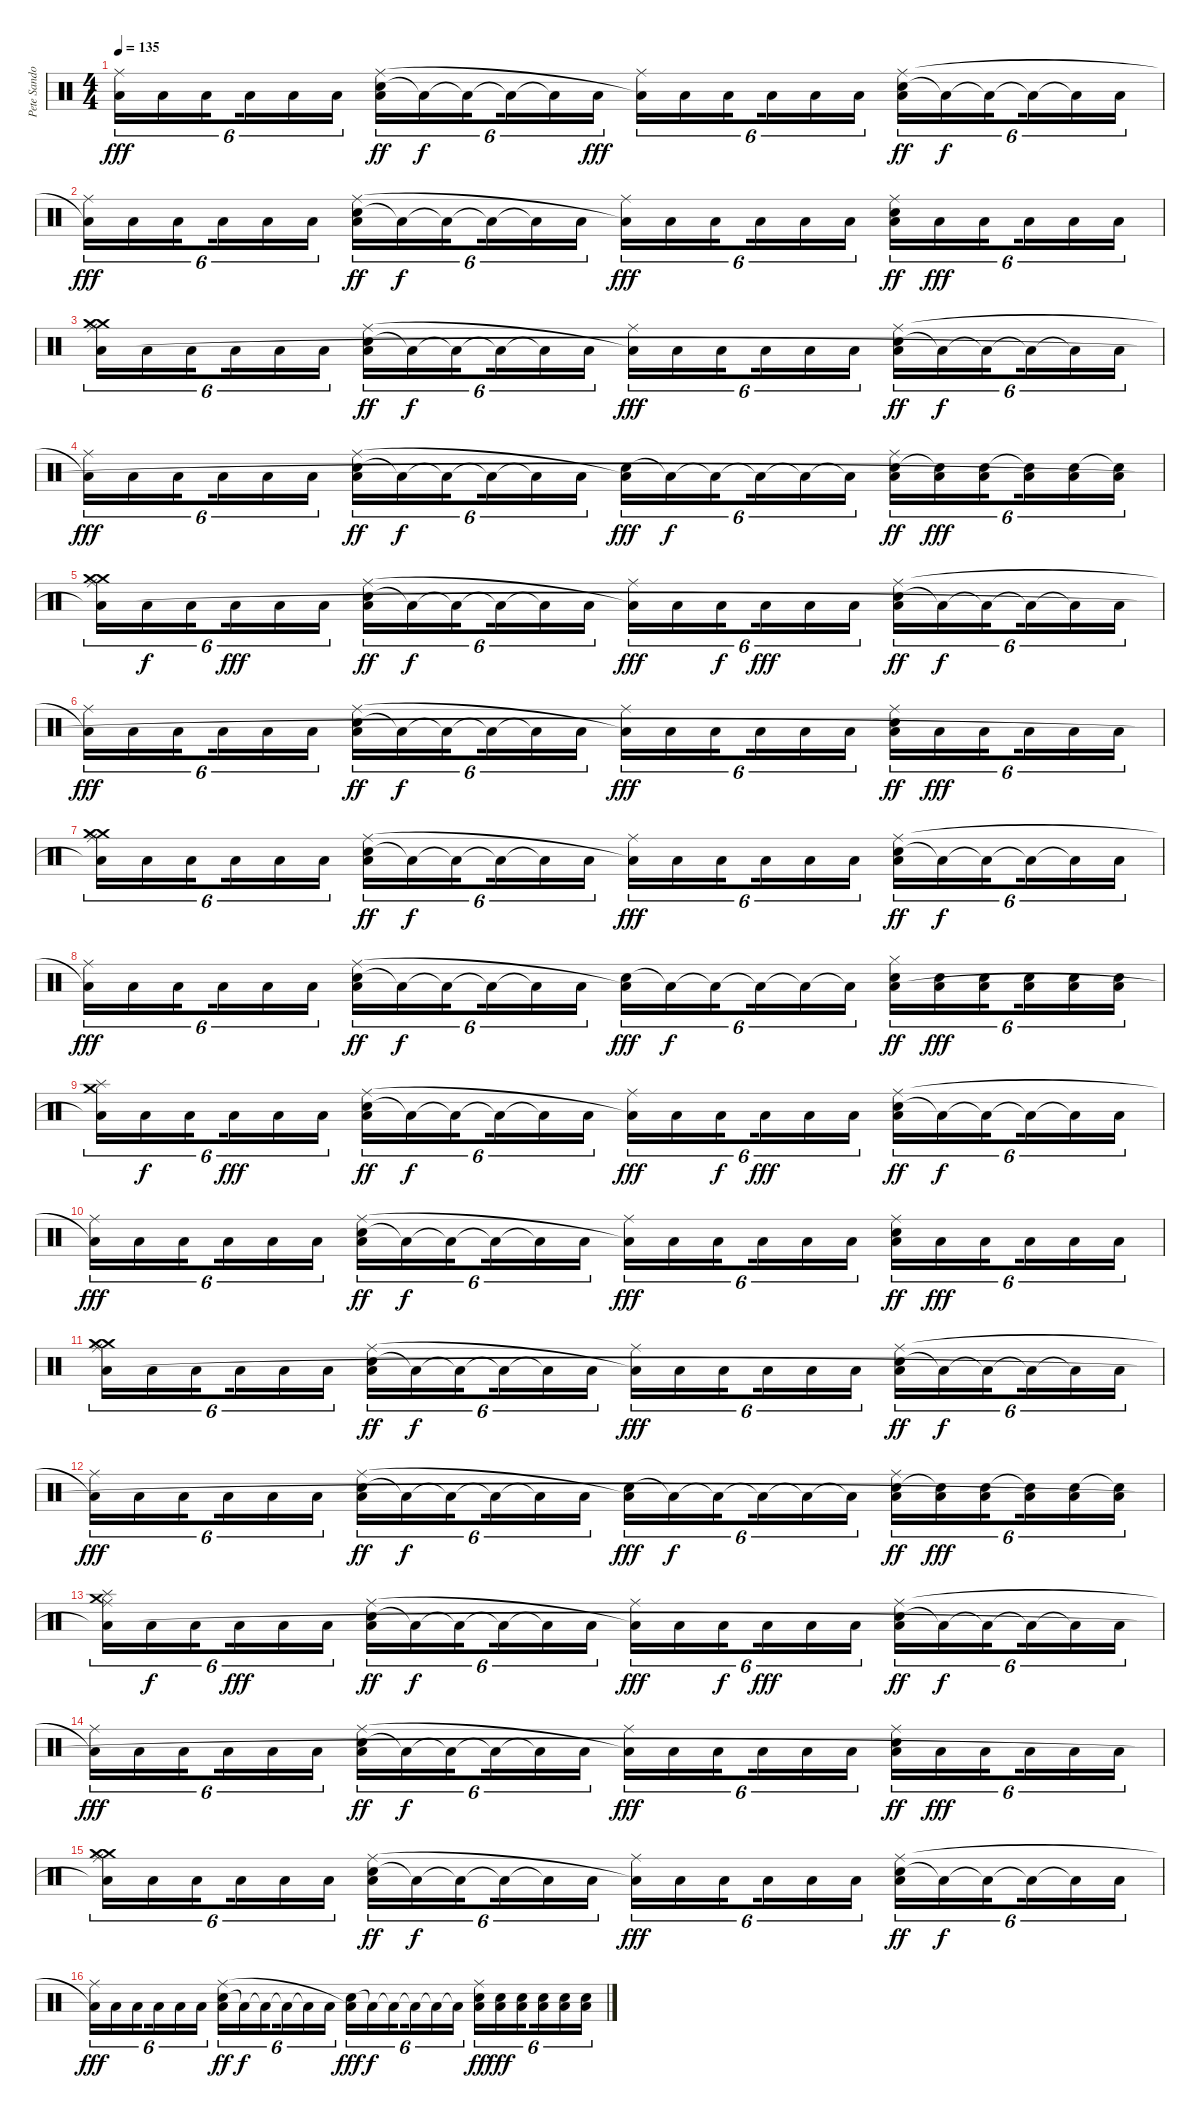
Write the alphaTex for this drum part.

\track ("Pete Sandoval" "Pete Sando") {instrument percussion}
\staff {score}
\articulation defaults
\ts (4 4)
\tempo 135
\clef neutral
\ks c
("Ride (middle)" "Low Floor Tom (hit)"{t}).16{tu (6 4) dy fff} "Low Floor Tom (hit)".16{tu (6 4)} "Low Floor Tom (hit)".16{tu (6 4) beam splitsecondary} "Low Floor Tom (hit)".16{tu (6 4)} "Low Floor Tom (hit)".16{tu (6 4)} "Low Floor Tom (hit)".16{tu (6 4)} ("Electric Snare (hit)" "Ride (middle)" "Low Floor Tom (hit)").16{tu (6 4) dy ff} "Low Floor Tom (hit)"{t}.16{tu (6 4) dy f} "Low Floor Tom (hit)"{t}.16{tu (6 4) beam splitsecondary} "Low Floor Tom (hit)"{t}.16{tu (6 4)} "Low Floor Tom (hit)"{t}.16{tu (6 4)} "Low Floor Tom (hit)".16{tu (6 4) dy fff} ("Ride (middle)" "Low Floor Tom (hit)"{t}).16{tu (6 4)} "Low Floor Tom (hit)".16{tu (6 4)} "Low Floor Tom (hit)".16{tu (6 4) beam splitsecondary} "Low Floor Tom (hit)".16{tu (6 4)} "Low Floor Tom (hit)".16{tu (6 4)} "Low Floor Tom (hit)".16{tu (6 4)} ("Electric Snare (hit)" "Ride (middle)" "Low Floor Tom (hit)").16{tu (6 4) dy ff} "Low Floor Tom (hit)"{t}.16{tu (6 4) dy f} "Low Floor Tom (hit)"{t}.16{tu (6 4) beam splitsecondary} "Low Floor Tom (hit)"{t}.16{tu (6 4)} "Low Floor Tom (hit)"{t}.16{tu (6 4)} "Low Floor Tom (hit)".16{tu (6 4)} |
("Ride (middle)" "Low Floor Tom (hit)"{t}).16{tu (6 4) dy fff} "Low Floor Tom (hit)".16{tu (6 4)} "Low Floor Tom (hit)".16{tu (6 4) beam splitsecondary} "Low Floor Tom (hit)".16{tu (6 4)} "Low Floor Tom (hit)".16{tu (6 4)} "Low Floor Tom (hit)".16{tu (6 4)} ("Electric Snare (hit)" "Ride (middle)" "Low Floor Tom (hit)").16{tu (6 4) dy ff} "Low Floor Tom (hit)"{t}.16{tu (6 4) dy f} "Low Floor Tom (hit)"{t}.16{tu (6 4) beam splitsecondary} "Low Floor Tom (hit)"{t}.16{tu (6 4)} "Low Floor Tom (hit)"{t}.16{tu (6 4)} "Low Floor Tom (hit)".16{tu (6 4)} ("Ride (middle)" "Low Floor Tom (hit)"{t}).16{tu (6 4) dy fff} "Low Floor Tom (hit)".16{tu (6 4)} "Low Floor Tom (hit)".16{tu (6 4) beam splitsecondary} "Low Floor Tom (hit)".16{tu (6 4)} "Low Floor Tom (hit)".16{tu (6 4)} "Low Floor Tom (hit)".16{tu (6 4)} ("Electric Snare (hit)" "Ride (middle)" "Low Floor Tom (hit)").16{tu (6 4) dy ff} "Low Floor Tom (hit)".16{tu (6 4) dy fff} "Low Floor Tom (hit)".16{tu (6 4) beam splitsecondary} "Low Floor Tom (hit)".16{tu (6 4)} "Low Floor Tom (hit)".16{tu (6 4)} "Low Floor Tom (hit)".16{tu (6 4)} |
("Crash medium (hit)" "Crash medium (hit)" "Ride (middle)" "Low Floor Tom (hit)").16{tu (6 4)} "Low Floor Tom (hit)".16{tu (6 4)} "Low Floor Tom (hit)".16{tu (6 4) beam splitsecondary} "Low Floor Tom (hit)".16{tu (6 4)} "Low Floor Tom (hit)".16{tu (6 4)} "Low Floor Tom (hit)".16{tu (6 4)} ("Electric Snare (hit)" "Ride (middle)" "Low Floor Tom (hit)").16{tu (6 4) dy ff} "Low Floor Tom (hit)"{t}.16{tu (6 4) dy f} "Low Floor Tom (hit)"{t}.16{tu (6 4) beam splitsecondary} "Low Floor Tom (hit)"{t}.16{tu (6 4)} "Low Floor Tom (hit)"{t}.16{tu (6 4)} "Low Floor Tom (hit)".16{tu (6 4)} ("Ride (middle)" "Low Floor Tom (hit)"{t}).16{tu (6 4) dy fff} "Low Floor Tom (hit)".16{tu (6 4)} "Low Floor Tom (hit)".16{tu (6 4) beam splitsecondary} "Low Floor Tom (hit)".16{tu (6 4)} "Low Floor Tom (hit)".16{tu (6 4)} "Low Floor Tom (hit)".16{tu (6 4)} ("Electric Snare (hit)" "Ride (middle)" "Low Floor Tom (hit)").16{tu (6 4) dy ff} "Low Floor Tom (hit)"{t}.16{tu (6 4) dy f} "Low Floor Tom (hit)"{t}.16{tu (6 4) beam splitsecondary} "Low Floor Tom (hit)"{t}.16{tu (6 4)} "Low Floor Tom (hit)"{t}.16{tu (6 4)} "Low Floor Tom (hit)".16{tu (6 4)} |
("Ride (middle)" "Low Floor Tom (hit)"{t}).16{tu (6 4) dy fff} "Low Floor Tom (hit)".16{tu (6 4)} "Low Floor Tom (hit)".16{tu (6 4) beam splitsecondary} "Low Floor Tom (hit)".16{tu (6 4)} "Low Floor Tom (hit)".16{tu (6 4)} "Low Floor Tom (hit)".16{tu (6 4)} ("Electric Snare (hit)" "Ride (middle)" "Low Floor Tom (hit)").16{tu (6 4) dy ff} "Low Floor Tom (hit)"{t}.16{tu (6 4) dy f} "Low Floor Tom (hit)"{t}.16{tu (6 4) beam splitsecondary} "Low Floor Tom (hit)"{t}.16{tu (6 4)} "Low Floor Tom (hit)"{t}.16{tu (6 4)} "Low Floor Tom (hit)".16{tu (6 4)} ("Electric Snare (hit)" "Low Floor Tom (hit)"{t}).16{tu (6 4) dy fff} "Low Floor Tom (hit)"{t}.16{tu (6 4) dy f} "Low Floor Tom (hit)"{t}.16{tu (6 4) beam splitsecondary} "Low Floor Tom (hit)"{t}.16{tu (6 4)} "Low Floor Tom (hit)"{t}.16{tu (6 4)} "Low Floor Tom (hit)"{t}.16{tu (6 4)} ("Electric Snare (hit)" "Ride (middle)" "Low Floor Tom (hit)").16{tu (6 4) dy ff} ("Electric Snare (hit)"{t} "Low Floor Tom (hit)").16{tu (6 4) dy fff} ("Electric Snare (hit)" "Low Floor Tom (hit)").16{tu (6 4) beam splitsecondary} ("Electric Snare (hit)"{t} "Low Floor Tom (hit)").16{tu (6 4)} ("Electric Snare (hit)" "Low Floor Tom (hit)").16{tu (6 4)} ("Electric Snare (hit)"{t} "Low Floor Tom (hit)").16{tu (6 4)} |
("Crash medium (hit)" "Crash medium (hit)" "Ride (middle)" "Low Floor Tom (hit)"{t}).16{tu (6 4)} "Low Floor Tom (hit)".16{tu (6 4) dy f} "Low Floor Tom (hit)".16{tu (6 4) beam splitsecondary} "Low Floor Tom (hit)".16{tu (6 4) dy fff} "Low Floor Tom (hit)".16{tu (6 4)} "Low Floor Tom (hit)".16{tu (6 4)} ("Electric Snare (hit)" "Ride (middle)" "Low Floor Tom (hit)").16{tu (6 4) dy ff} "Low Floor Tom (hit)"{t}.16{tu (6 4) dy f} "Low Floor Tom (hit)"{t}.16{tu (6 4) beam splitsecondary} "Low Floor Tom (hit)"{t}.16{tu (6 4)} "Low Floor Tom (hit)"{t}.16{tu (6 4)} "Low Floor Tom (hit)".16{tu (6 4)} ("Ride (middle)" "Low Floor Tom (hit)"{t}).16{tu (6 4) dy fff} "Low Floor Tom (hit)".16{tu (6 4)} "Low Floor Tom (hit)".16{tu (6 4) dy f beam splitsecondary} "Low Floor Tom (hit)".16{tu (6 4) dy fff} "Low Floor Tom (hit)".16{tu (6 4)} "Low Floor Tom (hit)".16{tu (6 4)} ("Electric Snare (hit)" "Ride (middle)" "Low Floor Tom (hit)").16{tu (6 4) dy ff} "Low Floor Tom (hit)"{t}.16{tu (6 4) dy f} "Low Floor Tom (hit)"{t}.16{tu (6 4) beam splitsecondary} "Low Floor Tom (hit)"{t}.16{tu (6 4)} "Low Floor Tom (hit)"{t}.16{tu (6 4)} "Low Floor Tom (hit)".16{tu (6 4)} |
("Ride (middle)" "Low Floor Tom (hit)"{t}).16{tu (6 4) dy fff} "Low Floor Tom (hit)".16{tu (6 4)} "Low Floor Tom (hit)".16{tu (6 4) beam splitsecondary} "Low Floor Tom (hit)".16{tu (6 4)} "Low Floor Tom (hit)".16{tu (6 4)} "Low Floor Tom (hit)".16{tu (6 4)} ("Electric Snare (hit)" "Ride (middle)" "Low Floor Tom (hit)").16{tu (6 4) dy ff} "Low Floor Tom (hit)"{t}.16{tu (6 4) dy f} "Low Floor Tom (hit)"{t}.16{tu (6 4) beam splitsecondary} "Low Floor Tom (hit)"{t}.16{tu (6 4)} "Low Floor Tom (hit)"{t}.16{tu (6 4)} "Low Floor Tom (hit)".16{tu (6 4)} ("Ride (middle)" "Low Floor Tom (hit)"{t}).16{tu (6 4) dy fff} "Low Floor Tom (hit)".16{tu (6 4)} "Low Floor Tom (hit)".16{tu (6 4) beam splitsecondary} "Low Floor Tom (hit)".16{tu (6 4)} "Low Floor Tom (hit)".16{tu (6 4)} "Low Floor Tom (hit)".16{tu (6 4)} ("Electric Snare (hit)" "Ride (middle)" "Low Floor Tom (hit)").16{tu (6 4) dy ff} "Low Floor Tom (hit)".16{tu (6 4) dy fff} "Low Floor Tom (hit)".16{tu (6 4) beam splitsecondary} "Low Floor Tom (hit)".16{tu (6 4)} "Low Floor Tom (hit)".16{tu (6 4)} "Low Floor Tom (hit)".16{tu (6 4)} |
("Crash medium (hit)" "Crash medium (hit)" "Ride (middle)" "Low Floor Tom (hit)"{t}).16{tu (6 4)} "Low Floor Tom (hit)".16{tu (6 4)} "Low Floor Tom (hit)".16{tu (6 4) beam splitsecondary} "Low Floor Tom (hit)".16{tu (6 4)} "Low Floor Tom (hit)".16{tu (6 4)} "Low Floor Tom (hit)".16{tu (6 4)} ("Electric Snare (hit)" "Ride (middle)" "Low Floor Tom (hit)").16{tu (6 4) dy ff} "Low Floor Tom (hit)"{t}.16{tu (6 4) dy f} "Low Floor Tom (hit)"{t}.16{tu (6 4) beam splitsecondary} "Low Floor Tom (hit)"{t}.16{tu (6 4)} "Low Floor Tom (hit)"{t}.16{tu (6 4)} "Low Floor Tom (hit)".16{tu (6 4)} ("Ride (middle)" "Low Floor Tom (hit)"{t}).16{tu (6 4) dy fff} "Low Floor Tom (hit)".16{tu (6 4)} "Low Floor Tom (hit)".16{tu (6 4) beam splitsecondary} "Low Floor Tom (hit)".16{tu (6 4)} "Low Floor Tom (hit)".16{tu (6 4)} "Low Floor Tom (hit)".16{tu (6 4)} ("Electric Snare (hit)" "Ride (middle)" "Low Floor Tom (hit)").16{tu (6 4) dy ff} "Low Floor Tom (hit)"{t}.16{tu (6 4) dy f} "Low Floor Tom (hit)"{t}.16{tu (6 4) beam splitsecondary} "Low Floor Tom (hit)"{t}.16{tu (6 4)} "Low Floor Tom (hit)"{t}.16{tu (6 4)} "Low Floor Tom (hit)".16{tu (6 4)} |
("Ride (middle)" "Low Floor Tom (hit)"{t}).16{tu (6 4) dy fff} "Low Floor Tom (hit)".16{tu (6 4)} "Low Floor Tom (hit)".16{tu (6 4) beam splitsecondary} "Low Floor Tom (hit)".16{tu (6 4)} "Low Floor Tom (hit)".16{tu (6 4)} "Low Floor Tom (hit)".16{tu (6 4)} ("Electric Snare (hit)" "Ride (middle)" "Low Floor Tom (hit)").16{tu (6 4) dy ff} "Low Floor Tom (hit)"{t}.16{tu (6 4) dy f} "Low Floor Tom (hit)"{t}.16{tu (6 4) beam splitsecondary} "Low Floor Tom (hit)"{t}.16{tu (6 4)} "Low Floor Tom (hit)"{t}.16{tu (6 4)} "Low Floor Tom (hit)".16{tu (6 4)} ("Electric Snare (hit)" "Low Floor Tom (hit)"{t}).16{tu (6 4) dy fff} "Low Floor Tom (hit)"{t}.16{tu (6 4) dy f} "Low Floor Tom (hit)"{t}.16{tu (6 4) beam splitsecondary} "Low Floor Tom (hit)"{t}.16{tu (6 4)} "Low Floor Tom (hit)"{t}.16{tu (6 4)} "Low Floor Tom (hit)"{t}.16{tu (6 4)} ("Electric Snare (hit)" "Hi-Hat (closed)" "Low Floor Tom (hit)").16{tu (6 4) dy ff} ("Electric Snare (hit)" "Low Floor Tom (hit)").16{tu (6 4) dy fff} ("Electric Snare (hit)" "Low Floor Tom (hit)").16{tu (6 4) beam splitsecondary} ("Electric Snare (hit)" "Low Floor Tom (hit)").16{tu (6 4)} ("Electric Snare (hit)" "Low Floor Tom (hit)").16{tu (6 4)} ("Electric Snare (hit)" "Low Floor Tom (hit)").16{tu (6 4)} |
("Crash medium (hit)" "Splash (hit)" "Low Floor Tom (hit)"{t}).16{tu (6 4)} "Low Floor Tom (hit)".16{tu (6 4) dy f} "Low Floor Tom (hit)".16{tu (6 4) beam splitsecondary} "Low Floor Tom (hit)".16{tu (6 4) dy fff} "Low Floor Tom (hit)".16{tu (6 4)} "Low Floor Tom (hit)".16{tu (6 4)} ("Electric Snare (hit)" "Ride (middle)" "Low Floor Tom (hit)").16{tu (6 4) dy ff} "Low Floor Tom (hit)"{t}.16{tu (6 4) dy f} "Low Floor Tom (hit)"{t}.16{tu (6 4) beam splitsecondary} "Low Floor Tom (hit)"{t}.16{tu (6 4)} "Low Floor Tom (hit)"{t}.16{tu (6 4)} "Low Floor Tom (hit)".16{tu (6 4)} ("Ride (middle)" "Low Floor Tom (hit)"{t}).16{tu (6 4) dy fff} "Low Floor Tom (hit)".16{tu (6 4)} "Low Floor Tom (hit)".16{tu (6 4) dy f beam splitsecondary} "Low Floor Tom (hit)".16{tu (6 4) dy fff} "Low Floor Tom (hit)".16{tu (6 4)} "Low Floor Tom (hit)".16{tu (6 4)} ("Electric Snare (hit)" "Ride (middle)" "Low Floor Tom (hit)").16{tu (6 4) dy ff} "Low Floor Tom (hit)"{t}.16{tu (6 4) dy f} "Low Floor Tom (hit)"{t}.16{tu (6 4) beam splitsecondary} "Low Floor Tom (hit)"{t}.16{tu (6 4)} "Low Floor Tom (hit)"{t}.16{tu (6 4)} "Low Floor Tom (hit)".16{tu (6 4)} |
("Ride (middle)" "Low Floor Tom (hit)"{t}).16{tu (6 4) dy fff} "Low Floor Tom (hit)".16{tu (6 4)} "Low Floor Tom (hit)".16{tu (6 4) beam splitsecondary} "Low Floor Tom (hit)".16{tu (6 4)} "Low Floor Tom (hit)".16{tu (6 4)} "Low Floor Tom (hit)".16{tu (6 4)} ("Electric Snare (hit)" "Ride (middle)" "Low Floor Tom (hit)").16{tu (6 4) dy ff} "Low Floor Tom (hit)"{t}.16{tu (6 4) dy f} "Low Floor Tom (hit)"{t}.16{tu (6 4) beam splitsecondary} "Low Floor Tom (hit)"{t}.16{tu (6 4)} "Low Floor Tom (hit)"{t}.16{tu (6 4)} "Low Floor Tom (hit)".16{tu (6 4)} ("Ride (middle)" "Low Floor Tom (hit)"{t}).16{tu (6 4) dy fff} "Low Floor Tom (hit)".16{tu (6 4)} "Low Floor Tom (hit)".16{tu (6 4) beam splitsecondary} "Low Floor Tom (hit)".16{tu (6 4)} "Low Floor Tom (hit)".16{tu (6 4)} "Low Floor Tom (hit)".16{tu (6 4)} ("Electric Snare (hit)" "Ride (middle)" "Low Floor Tom (hit)").16{tu (6 4) dy ff} "Low Floor Tom (hit)".16{tu (6 4) dy fff} "Low Floor Tom (hit)".16{tu (6 4) beam splitsecondary} "Low Floor Tom (hit)".16{tu (6 4)} "Low Floor Tom (hit)".16{tu (6 4)} "Low Floor Tom (hit)".16{tu (6 4)} |
("Crash medium (hit)" "Crash medium (hit)" "Ride (middle)" "Low Floor Tom (hit)").16{tu (6 4)} "Low Floor Tom (hit)".16{tu (6 4)} "Low Floor Tom (hit)".16{tu (6 4) beam splitsecondary} "Low Floor Tom (hit)".16{tu (6 4)} "Low Floor Tom (hit)".16{tu (6 4)} "Low Floor Tom (hit)".16{tu (6 4)} ("Electric Snare (hit)" "Ride (middle)" "Low Floor Tom (hit)").16{tu (6 4) dy ff} "Low Floor Tom (hit)"{t}.16{tu (6 4) dy f} "Low Floor Tom (hit)"{t}.16{tu (6 4) beam splitsecondary} "Low Floor Tom (hit)"{t}.16{tu (6 4)} "Low Floor Tom (hit)"{t}.16{tu (6 4)} "Low Floor Tom (hit)".16{tu (6 4)} ("Ride (middle)" "Low Floor Tom (hit)"{t}).16{tu (6 4) dy fff} "Low Floor Tom (hit)".16{tu (6 4)} "Low Floor Tom (hit)".16{tu (6 4) beam splitsecondary} "Low Floor Tom (hit)".16{tu (6 4)} "Low Floor Tom (hit)".16{tu (6 4)} "Low Floor Tom (hit)".16{tu (6 4)} ("Electric Snare (hit)" "Ride (middle)" "Low Floor Tom (hit)").16{tu (6 4) dy ff} "Low Floor Tom (hit)"{t}.16{tu (6 4) dy f} "Low Floor Tom (hit)"{t}.16{tu (6 4) beam splitsecondary} "Low Floor Tom (hit)"{t}.16{tu (6 4)} "Low Floor Tom (hit)"{t}.16{tu (6 4)} "Low Floor Tom (hit)".16{tu (6 4)} |
("Ride (middle)" "Low Floor Tom (hit)"{t}).16{tu (6 4) dy fff} "Low Floor Tom (hit)".16{tu (6 4)} "Low Floor Tom (hit)".16{tu (6 4) beam splitsecondary} "Low Floor Tom (hit)".16{tu (6 4)} "Low Floor Tom (hit)".16{tu (6 4)} "Low Floor Tom (hit)".16{tu (6 4)} ("Electric Snare (hit)" "Ride (middle)" "Low Floor Tom (hit)").16{tu (6 4) dy ff} "Low Floor Tom (hit)"{t}.16{tu (6 4) dy f} "Low Floor Tom (hit)"{t}.16{tu (6 4) beam splitsecondary} "Low Floor Tom (hit)"{t}.16{tu (6 4)} "Low Floor Tom (hit)"{t}.16{tu (6 4)} "Low Floor Tom (hit)".16{tu (6 4)} ("Electric Snare (hit)" "Low Floor Tom (hit)"{t}).16{tu (6 4) dy fff} "Low Floor Tom (hit)"{t}.16{tu (6 4) dy f} "Low Floor Tom (hit)"{t}.16{tu (6 4) beam splitsecondary} "Low Floor Tom (hit)"{t}.16{tu (6 4)} "Low Floor Tom (hit)"{t}.16{tu (6 4)} "Low Floor Tom (hit)"{t}.16{tu (6 4)} ("Electric Snare (hit)" "Ride (middle)" "Low Floor Tom (hit)").16{tu (6 4) dy ff} ("Electric Snare (hit)"{t} "Low Floor Tom (hit)").16{tu (6 4) dy fff} ("Electric Snare (hit)" "Low Floor Tom (hit)").16{tu (6 4) beam splitsecondary} ("Electric Snare (hit)"{t} "Low Floor Tom (hit)").16{tu (6 4)} ("Electric Snare (hit)" "Low Floor Tom (hit)").16{tu (6 4)} ("Electric Snare (hit)"{t} "Low Floor Tom (hit)").16{tu (6 4)} |
("Crash medium (hit)" "Splash (hit)" "Ride (middle)" "Low Floor Tom (hit)"{t}).16{tu (6 4)} "Low Floor Tom (hit)".16{tu (6 4) dy f} "Low Floor Tom (hit)".16{tu (6 4) beam splitsecondary} "Low Floor Tom (hit)".16{tu (6 4) dy fff} "Low Floor Tom (hit)".16{tu (6 4)} "Low Floor Tom (hit)".16{tu (6 4)} ("Electric Snare (hit)" "Ride (middle)" "Low Floor Tom (hit)").16{tu (6 4) dy ff} "Low Floor Tom (hit)"{t}.16{tu (6 4) dy f} "Low Floor Tom (hit)"{t}.16{tu (6 4) beam splitsecondary} "Low Floor Tom (hit)"{t}.16{tu (6 4)} "Low Floor Tom (hit)"{t}.16{tu (6 4)} "Low Floor Tom (hit)".16{tu (6 4)} ("Ride (middle)" "Low Floor Tom (hit)"{t}).16{tu (6 4) dy fff} "Low Floor Tom (hit)".16{tu (6 4)} "Low Floor Tom (hit)".16{tu (6 4) dy f beam splitsecondary} "Low Floor Tom (hit)".16{tu (6 4) dy fff} "Low Floor Tom (hit)".16{tu (6 4)} "Low Floor Tom (hit)".16{tu (6 4)} ("Electric Snare (hit)" "Ride (middle)" "Low Floor Tom (hit)").16{tu (6 4) dy ff} "Low Floor Tom (hit)"{t}.16{tu (6 4) dy f} "Low Floor Tom (hit)"{t}.16{tu (6 4) beam splitsecondary} "Low Floor Tom (hit)"{t}.16{tu (6 4)} "Low Floor Tom (hit)"{t}.16{tu (6 4)} "Low Floor Tom (hit)".16{tu (6 4)} |
("Ride (middle)" "Low Floor Tom (hit)"{t}).16{tu (6 4) dy fff} "Low Floor Tom (hit)".16{tu (6 4)} "Low Floor Tom (hit)".16{tu (6 4) beam splitsecondary} "Low Floor Tom (hit)".16{tu (6 4)} "Low Floor Tom (hit)".16{tu (6 4)} "Low Floor Tom (hit)".16{tu (6 4)} ("Electric Snare (hit)" "Ride (middle)" "Low Floor Tom (hit)").16{tu (6 4) dy ff} "Low Floor Tom (hit)"{t}.16{tu (6 4) dy f} "Low Floor Tom (hit)"{t}.16{tu (6 4) beam splitsecondary} "Low Floor Tom (hit)"{t}.16{tu (6 4)} "Low Floor Tom (hit)"{t}.16{tu (6 4)} "Low Floor Tom (hit)".16{tu (6 4)} ("Ride (middle)" "Low Floor Tom (hit)"{t}).16{tu (6 4) dy fff} "Low Floor Tom (hit)".16{tu (6 4)} "Low Floor Tom (hit)".16{tu (6 4) beam splitsecondary} "Low Floor Tom (hit)".16{tu (6 4)} "Low Floor Tom (hit)".16{tu (6 4)} "Low Floor Tom (hit)".16{tu (6 4)} ("Electric Snare (hit)" "Ride (middle)" "Low Floor Tom (hit)").16{tu (6 4) dy ff} "Low Floor Tom (hit)".16{tu (6 4) dy fff} "Low Floor Tom (hit)".16{tu (6 4) beam splitsecondary} "Low Floor Tom (hit)".16{tu (6 4)} "Low Floor Tom (hit)".16{tu (6 4)} "Low Floor Tom (hit)".16{tu (6 4)} |
("Crash medium (hit)" "Crash medium (hit)" "Ride (middle)" "Low Floor Tom (hit)"{t}).16{tu (6 4)} "Low Floor Tom (hit)".16{tu (6 4)} "Low Floor Tom (hit)".16{tu (6 4) beam splitsecondary} "Low Floor Tom (hit)".16{tu (6 4)} "Low Floor Tom (hit)".16{tu (6 4)} "Low Floor Tom (hit)".16{tu (6 4)} ("Electric Snare (hit)" "Ride (middle)" "Low Floor Tom (hit)").16{tu (6 4) dy ff} "Low Floor Tom (hit)"{t}.16{tu (6 4) dy f} "Low Floor Tom (hit)"{t}.16{tu (6 4) beam splitsecondary} "Low Floor Tom (hit)"{t}.16{tu (6 4)} "Low Floor Tom (hit)"{t}.16{tu (6 4)} "Low Floor Tom (hit)".16{tu (6 4)} ("Ride (middle)" "Low Floor Tom (hit)"{t}).16{tu (6 4) dy fff} "Low Floor Tom (hit)".16{tu (6 4)} "Low Floor Tom (hit)".16{tu (6 4) beam splitsecondary} "Low Floor Tom (hit)".16{tu (6 4)} "Low Floor Tom (hit)".16{tu (6 4)} "Low Floor Tom (hit)".16{tu (6 4)} ("Electric Snare (hit)" "Ride (middle)" "Low Floor Tom (hit)").16{tu (6 4) dy ff} "Low Floor Tom (hit)"{t}.16{tu (6 4) dy f} "Low Floor Tom (hit)"{t}.16{tu (6 4) beam splitsecondary} "Low Floor Tom (hit)"{t}.16{tu (6 4)} "Low Floor Tom (hit)"{t}.16{tu (6 4)} "Low Floor Tom (hit)".16{tu (6 4)} |
("Ride (middle)" "Low Floor Tom (hit)"{t}).16{tu (6 4) dy fff} "Low Floor Tom (hit)".16{tu (6 4)} "Low Floor Tom (hit)".16{tu (6 4) beam splitsecondary} "Low Floor Tom (hit)".16{tu (6 4)} "Low Floor Tom (hit)".16{tu (6 4)} "Low Floor Tom (hit)".16{tu (6 4)} ("Electric Snare (hit)" "Ride (middle)" "Low Floor Tom (hit)").16{tu (6 4) dy ff} "Low Floor Tom (hit)"{t}.16{tu (6 4) dy f} "Low Floor Tom (hit)"{t}.16{tu (6 4) beam splitsecondary} "Low Floor Tom (hit)"{t}.16{tu (6 4)} "Low Floor Tom (hit)"{t}.16{tu (6 4)} "Low Floor Tom (hit)".16{tu (6 4)} ("Electric Snare (hit)" "Low Floor Tom (hit)"{t}).16{tu (6 4) dy fff} "Low Floor Tom (hit)"{t}.16{tu (6 4) dy f} "Low Floor Tom (hit)"{t}.16{tu (6 4) beam splitsecondary} "Low Floor Tom (hit)"{t}.16{tu (6 4)} "Low Floor Tom (hit)"{t}.16{tu (6 4)} "Low Floor Tom (hit)"{t}.16{tu (6 4)} ("Electric Snare (hit)" "Ride (middle)" "Low Floor Tom (hit)").16{tu (6 4) dy ff} ("Electric Snare (hit)" "Low Floor Tom (hit)").16{tu (6 4) dy fff} ("Electric Snare (hit)" "Low Floor Tom (hit)").16{tu (6 4) beam splitsecondary} ("Electric Snare (hit)" "Low Floor Tom (hit)").16{tu (6 4)} ("Electric Snare (hit)" "Low Floor Tom (hit)").16{tu (6 4)} ("Electric Snare (hit)" "Low Floor Tom (hit)").16{tu (6 4)}
